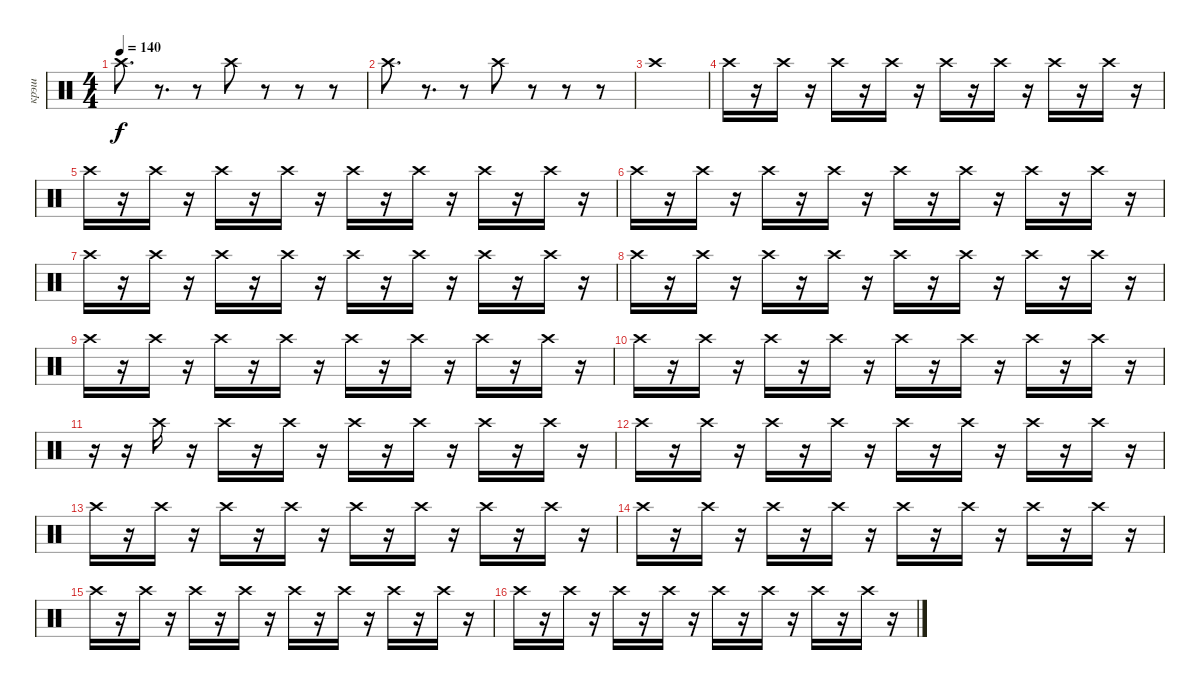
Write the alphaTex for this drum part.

\track ("крэш" "крэш") {mute instrument percussion}
\staff {score}
\articulation defaults
\ts (4 4)
\tempo 140
\clef neutral
\ks c "Crash high (hit)".8{d dy f}
r.8{d} r.8 "Crash high (hit)".8 r.8 r.8 r.8 |
"Crash high (hit)".8{d} r.8{d} r.8 "Crash high (hit)".8 r.8 r.8 r.8 |
"Crash high (hit)".1 |
"Crash high (hit)".16 r.16 "Crash high (hit)".16 r.16 "Crash high (hit)".16 r.16 "Crash high (hit)".16 r.16 "Crash high (hit)".16 r.16 "Crash high (hit)".16 r.16 "Crash high (hit)".16 r.16 "Crash high (hit)".16 r.16 |
"Crash high (hit)".16 r.16 "Crash high (hit)".16 r.16 "Crash high (hit)".16 r.16 "Crash high (hit)".16 r.16 "Crash high (hit)".16 r.16 "Crash high (hit)".16 r.16 "Crash high (hit)".16 r.16 "Crash high (hit)".16 r.16 |
"Crash high (hit)".16 r.16 "Crash high (hit)".16 r.16 "Crash high (hit)".16 r.16 "Crash high (hit)".16 r.16 "Crash high (hit)".16 r.16 "Crash high (hit)".16 r.16 "Crash high (hit)".16 r.16 "Crash high (hit)".16 r.16 |
"Crash high (hit)".16 r.16 "Crash high (hit)".16 r.16 "Crash high (hit)".16 r.16 "Crash high (hit)".16 r.16 "Crash high (hit)".16 r.16 "Crash high (hit)".16 r.16 "Crash high (hit)".16 r.16 "Crash high (hit)".16 r.16 |
"Crash high (hit)".16 r.16 "Crash high (hit)".16 r.16 "Crash high (hit)".16 r.16 "Crash high (hit)".16 r.16 "Crash high (hit)".16 r.16 "Crash high (hit)".16 r.16 "Crash high (hit)".16 r.16 "Crash high (hit)".16 r.16 |
"Crash high (hit)".16 r.16 "Crash high (hit)".16 r.16 "Crash high (hit)".16 r.16 "Crash high (hit)".16 r.16 "Crash high (hit)".16 r.16 "Crash high (hit)".16 r.16 "Crash high (hit)".16 r.16 "Crash high (hit)".16 r.16 |
"Crash high (hit)".16 r.16 "Crash high (hit)".16 r.16 "Crash high (hit)".16 r.16 "Crash high (hit)".16 r.16 "Crash high (hit)".16 r.16 "Crash high (hit)".16 r.16 "Crash high (hit)".16 r.16 "Crash high (hit)".16 r.16 |
r.16 r.16 "Crash high (hit)".16 r.16 "Crash high (hit)".16 r.16 "Crash high (hit)".16 r.16 "Crash high (hit)".16 r.16 "Crash high (hit)".16 r.16 "Crash high (hit)".16 r.16 "Crash high (hit)".16 r.16 |
"Crash high (hit)".16 r.16 "Crash high (hit)".16 r.16 "Crash high (hit)".16 r.16 "Crash high (hit)".16 r.16 "Crash high (hit)".16 r.16 "Crash high (hit)".16 r.16 "Crash high (hit)".16 r.16 "Crash high (hit)".16 r.16 |
"Crash high (hit)".16 r.16 "Crash high (hit)".16 r.16 "Crash high (hit)".16 r.16 "Crash high (hit)".16 r.16 "Crash high (hit)".16 r.16 "Crash high (hit)".16 r.16 "Crash high (hit)".16 r.16 "Crash high (hit)".16 r.16 |
"Crash high (hit)".16 r.16 "Crash high (hit)".16 r.16 "Crash high (hit)".16 r.16 "Crash high (hit)".16 r.16 "Crash high (hit)".16 r.16 "Crash high (hit)".16 r.16 "Crash high (hit)".16 r.16 "Crash high (hit)".16 r.16 |
"Crash high (hit)".16 r.16 "Crash high (hit)".16 r.16 "Crash high (hit)".16 r.16 "Crash high (hit)".16 r.16 "Crash high (hit)".16 r.16 "Crash high (hit)".16 r.16 "Crash high (hit)".16 r.16 "Crash high (hit)".16 r.16 |
"Crash high (hit)".16 r.16 "Crash high (hit)".16 r.16 "Crash high (hit)".16 r.16 "Crash high (hit)".16 r.16 "Crash high (hit)".16 r.16 "Crash high (hit)".16 r.16 "Crash high (hit)".16 r.16 "Crash high (hit)".16 r.16
